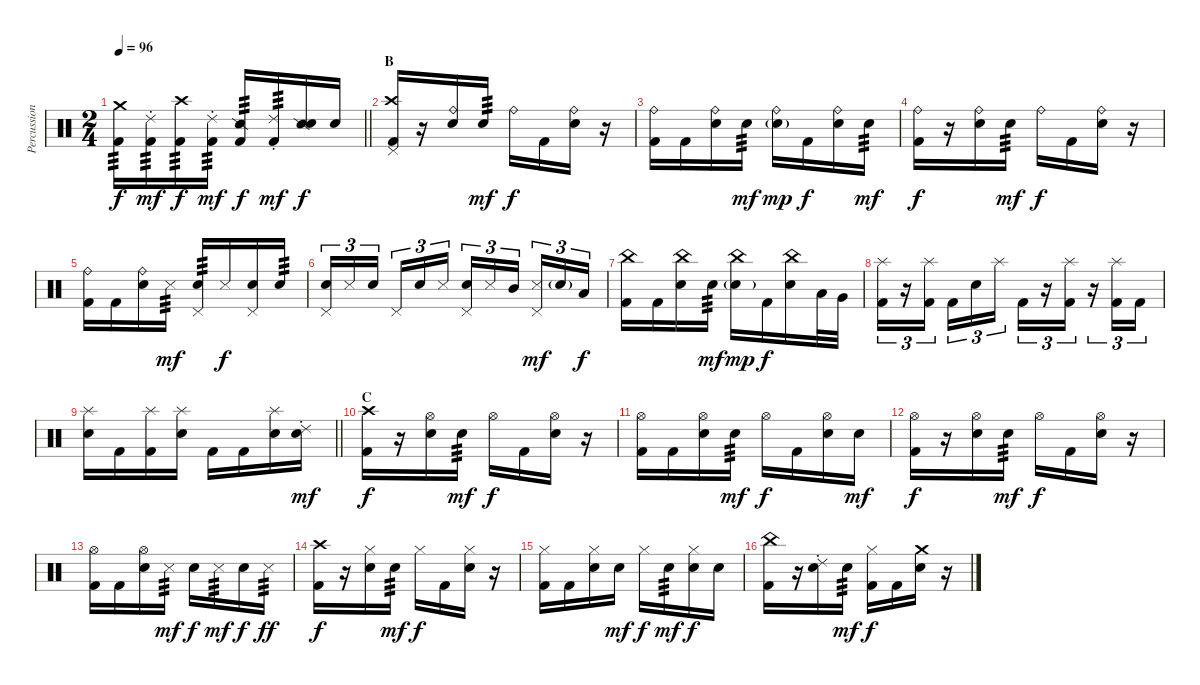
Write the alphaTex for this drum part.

\track ("Percussion" "Percussion") {instrument percussion}
\staff {score}
\articulation defaults
\ts (2 4)
\tempo 96
\clef neutral
\barLineRight lightlight
\ks c
("Crash medium (hit)" "Kick (hit) 2").16{tp 3 dy f} ("Ride (choke) 2" "Kick (hit) 2").16{tp 3 dy mf} ("Crash high (hit)" "Kick (hit) 2").16{tp 3 dy f} ("Ride (choke) 2" "Kick (hit) 2").16{tp 3 dy mf} ("Snare (side stick) 2" "Kick (hit) 2").16{tp 3 dy f} ("Ride (choke) 2" "Kick (hit) 2").16{tp 3 dy mf} ("Snare (side stick) 2" "Snare (hit) 2").16{dy f} "Snare (hit)".16 |
\section ("" "B")
("Crash high (hit)" "Pedal Hi-Hat (hit)" "Kick (hit) 2").16 r.16 ("Ride (bell)" "Snare (hit) 2").16 "Snare (hit) 2".16{tp 3 dy mf} "Ride (bell)".16{dy f} "Kick (hit) 2".16 ("Ride (bell)" "Snare (hit) 2").16 r.16 |
("Ride (bell)" "Kick (hit) 2").16 "Kick (hit) 2".16 ("Ride (bell)" "Snare (hit) 2").16 "Snare (hit) 2".16{tp 3 dy mf} ("Ride (bell)" "Snare (hit) 2"{g}).16{dy mp} "Kick (hit) 2".16{dy f} ("Ride (bell)" "Snare (hit) 2").16 "Snare (hit) 2".16{tp 3 dy mf} |
("Ride (bell)" "Kick (hit) 2").16{dy f} r.16 ("Ride (bell)" "Snare (hit) 2").16 "Snare (hit) 2".16{tp 3 dy mf} "Ride (bell)".16{dy f} "Kick (hit) 2".16 ("Ride (bell)" "Snare (hit) 2").16 r.16 |
("Ride (bell)" "Kick (hit) 2").16 "Kick (hit) 2".16 ("Ride (bell)" "Snare (hit) 2").16 "Metronome (hit)".16{tp 3 dy mf} ("Pedal Hi-Hat (hit)" "Snare (hit) 2").16{tp 3} "Metronome (hit)".16{dy f} ("Pedal Hi-Hat (hit)" "Snare (hit) 2").16 "Snare (hit) 2".16{tp 3} |
("Pedal Hi-Hat (hit)" "Snare (hit) 2").16{tu (3 2)} "Metronome (hit)".16{tu (3 2)} "Snare (hit) 2".16{tu (3 2) beam splitsecondary} "Pedal Hi-Hat (hit)".16{tu (3 2)} "Snare (hit) 2".16{tu (3 2)} "Metronome (hit)".16{tu (3 2)} ("Pedal Hi-Hat (hit)" "Snare (hit) 2").16{tu (3 2)} "Metronome (hit)".16{tu (3 2)} "Mid Tom (hit)".16{tu (3 2) beam splitsecondary} ("Pedal Hi-Hat (hit)" "Metronome (hit)").16{tu (3 2) dy mf} "Snare (hit) 2"{g}.16{tu (3 2)} "Low Tom (hit)".16{tu (3 2) dy f} |
("China (hit)" "Kick (hit) 2").16 "Kick (hit) 2".16 ("China (hit)" "Snare (hit) 2").16 "Snare (hit) 2".16{tp 3 dy mf} ("China (hit)" "Snare (hit) 2"{g}).16{dy mp} "Kick (hit) 2".16{dy f} ("China (hit)" "Snare (hit) 2").16 "Low Tom (hit)".32 "Very Low Tom (hit)".32 |
("Splash (hit)" "Kick (hit) 2").16{tu (3 2)} r.16{tu (3 2)} ("Splash (hit)" "Kick (hit) 2").16{tu (3 2) beam splitsecondary} "Kick (hit) 2".16{tu (3 2)} "Snare (hit) 2".16{tu (3 2)} "Splash (hit)".16{tu (3 2)} "Kick (hit) 2".16{tu (3 2)} r.16{tu (3 2)} ("Splash (hit)" "Kick (hit) 2").16{tu (3 2)} r.16{tu (3 2)} ("Splash (hit)" "Kick (hit) 2").16{tu (3 2)} "Kick (hit) 2".16{tu (3 2)} |
\barLineRight lightlight
("Splash (hit)" "Snare (hit) 2").16 "Kick (hit) 2".16 ("Splash (hit)" "Kick (hit) 2").16 ("Splash (hit)" "Snare (hit) 2").16 "Kick (hit) 2".16 "Kick (hit) 2".16 ("Splash (hit)" "Snare (hit) 2").16 ("Ride (choke) 2" "Snare (hit) 2").16{dy mf} |
\section ("" "C")
("Crash high (hit)" "Kick (hit) 2").16{dy f} r.16 ("Hi-Hat (open)" "Snare (hit) 2").16 "Snare (hit) 2".16{tp 3 dy mf} "Hi-Hat (open)".16{dy f} "Kick (hit) 2".16 ("Hi-Hat (open)" "Snare (hit) 2").16 r.16 |
("Hi-Hat (open)" "Kick (hit) 2").16 "Kick (hit) 2".16 ("Hi-Hat (open)" "Snare (hit) 2").16 "Snare (hit) 2".16{tp 3 dy mf} "Hi-Hat (open)".16{dy f} "Kick (hit) 2".16 ("Hi-Hat (open)" "Snare (hit) 2").16 "Snare (hit) 2".16{dy mf} |
("Hi-Hat (open)" "Kick (hit) 2").16{dy f} r.16 ("Hi-Hat (open)" "Snare (hit) 2").16 "Snare (hit) 2".16{tp 3 dy mf} "Hi-Hat (open)".16{dy f} "Kick (hit) 2".16 ("Hi-Hat (open)" "Snare (hit) 2").16 r.16 |
("Hi-Hat (open)" "Kick (hit) 2").16 "Kick (hit) 2".16 ("Hi-Hat (open)" "Snare (hit) 2").16 "Metronome (hit)".16{tp 3 dy mf} "Snare (hit) 2".16{dy f} "Metronome (hit)".16{tp 3 dy mf} "Snare (hit) 2".16{dy f} "Metronome (hit)".16{tp 3 dy ff} |
("Crash high (hit)" "Kick (hit) 2").16{dy f} r.16 ("Hi-Hat (closed)" "Snare (hit) 2").16 "Snare (hit) 2".16{tp 3 dy mf} "Hi-Hat (closed)".16{dy f} "Kick (hit) 2".16 ("Hi-Hat (closed)" "Snare (hit) 2").16 r.16 |
("Hi-Hat (closed)" "Kick (hit) 2").16 "Kick (hit) 2".16 ("Hi-Hat (closed)" "Snare (hit) 2").16 "Snare (hit) 2".16{dy mf} "Hi-Hat (closed)".16{dy f} "Snare (hit) 2".16{tp 3 dy mf} ("Hi-Hat (closed)" "Snare (hit) 2").16{dy f} "Snare (hit) 2".16 |
("China (hit)" "Kick (hit) 2").16 r.16 ("Ride (choke) 2" "Snare (hit) 2").16 "Snare (hit) 2".16{tp 3 dy mf} ("Hi-Hat (closed)" "Kick (hit) 2").16{dy f} "Kick (hit) 2".16 ("Crash medium (hit)" "Snare (hit) 2").16 r.16
